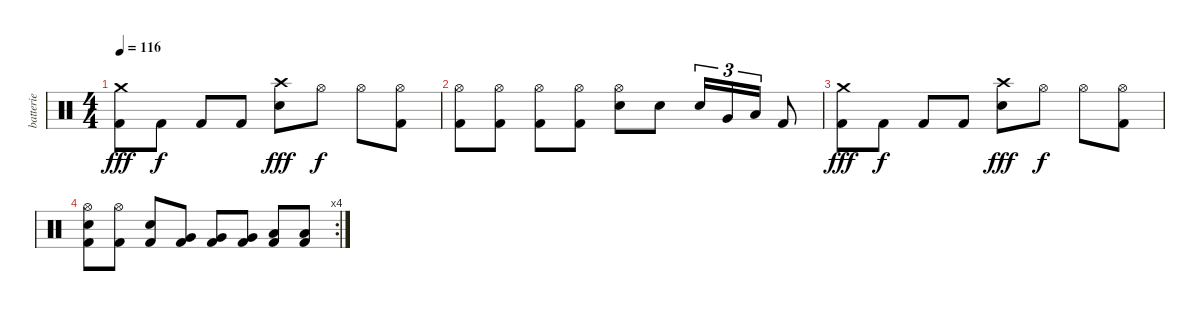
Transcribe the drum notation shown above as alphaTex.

\track ("batterie" "batterie") {instrument percussion}
\staff {score}
\articulation defaults
\ts (4 4)
\tempo 116
\clef neutral
\ks c
("Crash medium (hit)" "Kick (hit) 2").8{dy fff} "Kick (hit) 2".8{dy f} "Kick (hit) 2".8 "Kick (hit) 2".8 ("Crash high (hit)" "Electric Snare (hit)").8{dy fff} "Hi-Hat (open)".8{dy f} "Hi-Hat (open)".8 ("Kick (hit) 2" "Hi-Hat (open)").8 |
("Hi-Hat (open)" "Kick (hit) 2").8 ("Hi-Hat (open)" "Kick (hit) 2").8 ("Hi-Hat (open)" "Kick (hit) 2").8 ("Hi-Hat (open)" "Kick (hit) 2").8 ("Hi-Hat (open)" "Electric Snare (hit)").8 "Electric Snare (hit)".8 "Electric Snare (hit)".16{tu (3 2)} "Very Low Tom (hit)".16{tu (3 2)} "Low Floor Tom (hit)".16{tu (3 2)} "Kick (hit) 2".8 |
("Crash medium (hit)" "Kick (hit) 2").8{dy fff} "Kick (hit) 2".8{dy f} "Kick (hit) 2".8 "Kick (hit) 2".8 ("Crash high (hit)" "Electric Snare (hit)").8{dy fff} "Hi-Hat (open)".8{dy f} "Hi-Hat (open)".8 ("Kick (hit) 2" "Hi-Hat (open)").8 |
\rc 4
("Electric Snare (hit)" "Hi-Hat (open)" "Kick (hit) 2").8 ("Hi-Hat (open)" "Kick (hit) 2").8 ("Electric Snare (hit)" "Kick (hit) 2").8 ("Very Low Tom (hit)" "Kick (hit) 2").8 ("Very Low Tom (hit)" "Kick (hit) 2").8 ("Very Low Tom (hit)" "Kick (hit) 2").8 ("Low Floor Tom (hit)" "Kick (hit) 2").8 ("Low Floor Tom (hit)" "Kick (hit) 2").8
